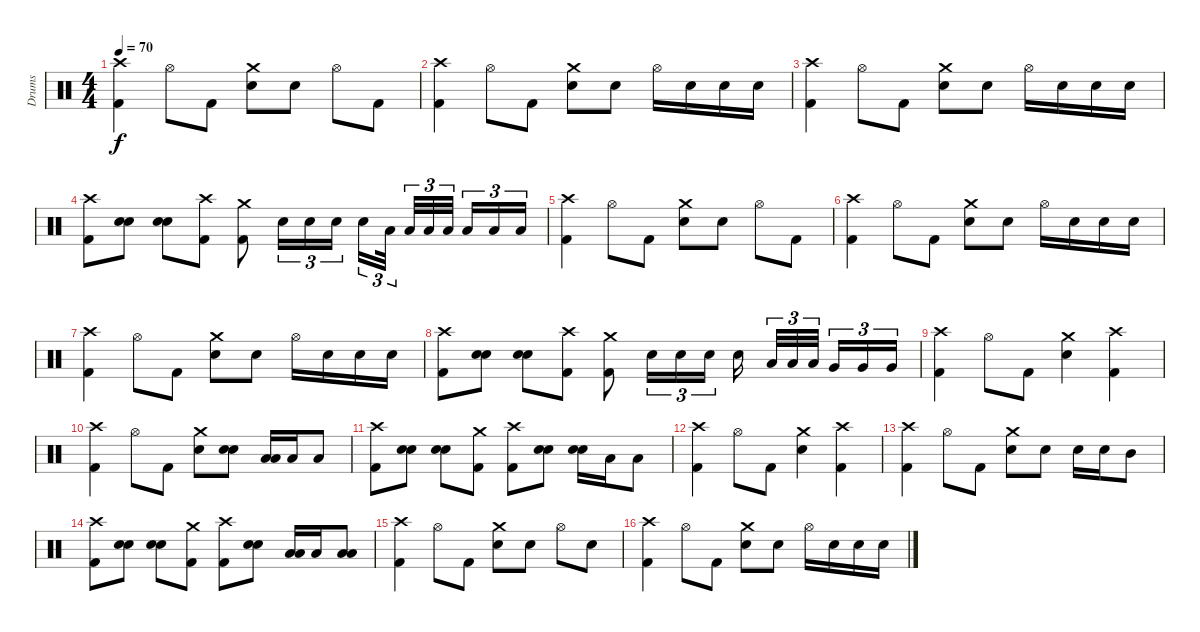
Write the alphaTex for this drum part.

\track ("Drums" "Drums") {instrument percussion}
\staff {score}
\articulation defaults
\ts (4 4)
\tempo 70
\clef neutral
\ks c
("Crash high (hit)" "Kick (hit) 2").4{dy f} "Hi-Hat (open)".8 "Kick (hit) 2".8 ("Crash medium (hit)" "Electric Snare (hit)").8 "Electric Snare (hit)".8 "Hi-Hat (open)".8 "Kick (hit) 2".8 |
("Crash high (hit)" "Kick (hit) 2").4 "Hi-Hat (open)".8 "Kick (hit) 2".8 ("Crash medium (hit)" "Electric Snare (hit)").8 "Electric Snare (hit)".8 "Hi-Hat (open)".16 "Electric Snare (hit)".16 "Electric Snare (hit)".16 "Electric Snare (hit)".16 |
("Crash high (hit)" "Kick (hit) 2").4 "Hi-Hat (open)".8 "Kick (hit) 2".8 ("Crash medium (hit)" "Electric Snare (hit)").8 "Electric Snare (hit)".8 "Hi-Hat (open)".16 "Electric Snare (hit)".16 "Electric Snare (hit)".16 "Electric Snare (hit)".16 |
("Crash high (hit)" "Kick (hit) 2").8 ("Electric Snare (hit)" "Electric Snare (hit)").8{bu 60} ("Electric Snare (hit)" "Electric Snare (hit)").8{bu 60} ("Crash high (hit)" "Kick (hit) 2").8 ("Crash medium (hit)" "Kick (hit) 2").8 "Electric Snare (hit)".16{tu (3 2)} "Electric Snare (hit)".16{tu (3 2)} "Electric Snare (hit)".16{tu (3 2)} "Electric Snare (hit)".16{tu (3 2)} "Low Tom (hit)".32{tu (3 2)} "Low Tom (hit)".32{tu (3 2)} "Low Tom (hit)".32{tu (3 2)} "Low Tom (hit)".32{tu (3 2)} "Low Tom (hit)".16{tu (3 2)} "Low Tom (hit)".16{tu (3 2)} "Low Tom (hit)".16{tu (3 2)} |
("Crash high (hit)" "Kick (hit) 2").4 "Hi-Hat (open)".8 "Kick (hit) 2".8 ("Crash medium (hit)" "Electric Snare (hit)").8 "Electric Snare (hit)".8 "Hi-Hat (open)".8 "Kick (hit) 2".8 |
("Crash high (hit)" "Kick (hit) 2").4 "Hi-Hat (open)".8 "Kick (hit) 2".8 ("Crash medium (hit)" "Electric Snare (hit)").8 "Electric Snare (hit)".8 "Hi-Hat (open)".16 "Electric Snare (hit)".16 "Electric Snare (hit)".16 "Electric Snare (hit)".16 |
("Crash high (hit)" "Kick (hit) 2").4 "Hi-Hat (open)".8 "Kick (hit) 2".8 ("Crash medium (hit)" "Electric Snare (hit)").8 "Electric Snare (hit)".8 "Hi-Hat (open)".16 "Electric Snare (hit)".16 "Electric Snare (hit)".16 "Electric Snare (hit)".16 |
("Crash high (hit)" "Kick (hit) 2").8 ("Electric Snare (hit)" "Electric Snare (hit)").8{bu 60} ("Electric Snare (hit)" "Electric Snare (hit)").8{bu 60} ("Crash high (hit)" "Kick (hit) 2").8 ("Crash medium (hit)" "Kick (hit) 2").8 "Electric Snare (hit)".16{tu (3 2)} "Electric Snare (hit)".16{tu (3 2)} "Electric Snare (hit)".16{tu (3 2)} "Electric Snare (hit)".16 "Low Tom (hit)".32{tu (3 2)} "Low Tom (hit)".32{tu (3 2)} "Low Tom (hit)".32{tu (3 2)} "Very Low Tom (hit)".16{tu (3 2)} "Very Low Tom (hit)".16{tu (3 2)} "Very Low Tom (hit)".16{tu (3 2)} |
("Crash high (hit)" "Kick (hit) 2").4 "Hi-Hat (open)".8 "Kick (hit) 2".8 ("Crash medium (hit)" "Electric Snare (hit)").4 ("Crash high (hit)" "Kick (hit) 2").4 |
("Crash high (hit)" "Kick (hit) 2").4 "Hi-Hat (open)".8 "Kick (hit) 2".8 ("Crash medium (hit)" "Electric Snare (hit)").8 ("Electric Snare (hit)" "Electric Snare (hit)").8{bu 60} ("Low Tom (hit)" "Low Tom (hit)").16{bu 60} "Low Tom (hit)".16 "Low Tom (hit)".8 |
("Crash high (hit)" "Kick (hit) 2").8 ("Electric Snare (hit)" "Electric Snare (hit)").8{bu 60} ("Electric Snare (hit)" "Electric Snare (hit)").8{bu 60} ("Crash medium (hit)" "Kick (hit) 2").8 ("Crash high (hit)" "Kick (hit) 2").8 ("Electric Snare (hit)" "Electric Snare (hit)").8{bu 60} ("Electric Snare (hit)" "Electric Snare (hit)").16{bu 60} "Low Tom (hit)".16 "Low Tom (hit)".8 |
("Crash high (hit)" "Kick (hit) 2").4 "Hi-Hat (open)".8 "Kick (hit) 2".8 ("Crash medium (hit)" "Electric Snare (hit)").4 ("Crash high (hit)" "Kick (hit) 2").4 |
("Crash high (hit)" "Kick (hit) 2").4 "Hi-Hat (open)".8 "Kick (hit) 2".8 ("Crash medium (hit)" "Electric Snare (hit)").8 "Electric Snare (hit)".8 "Electric Snare (hit)".16 "Electric Snare (hit)".16 "Mid Tom (hit)".8 |
("Crash high (hit)" "Kick (hit) 2").8 ("Electric Snare (hit)" "Electric Snare (hit)").8{bu 60} ("Electric Snare (hit)" "Electric Snare (hit)").8{bu 60} ("Crash medium (hit)" "Kick (hit) 2").8 ("Crash high (hit)" "Kick (hit) 2").8 ("Electric Snare (hit)" "Electric Snare (hit)").8{bu 60} ("Low Tom (hit)" "Low Tom (hit)").16{bu 60} "Low Tom (hit)".16 ("Low Tom (hit)" "Low Tom (hit)").8{bu 60} |
("Crash high (hit)" "Kick (hit) 2").4 "Hi-Hat (open)".8 "Kick (hit) 2".8 ("Crash medium (hit)" "Electric Snare (hit)").8 "Electric Snare (hit)".8 "Hi-Hat (open)".8 "Electric Snare (hit)".8 |
("Crash high (hit)" "Kick (hit) 2").4 "Hi-Hat (open)".8 "Kick (hit) 2".8 ("Crash medium (hit)" "Electric Snare (hit)").8 "Electric Snare (hit)".8 "Hi-Hat (open)".16 "Electric Snare (hit)".16 "Electric Snare (hit)".16 "Electric Snare (hit)".16
